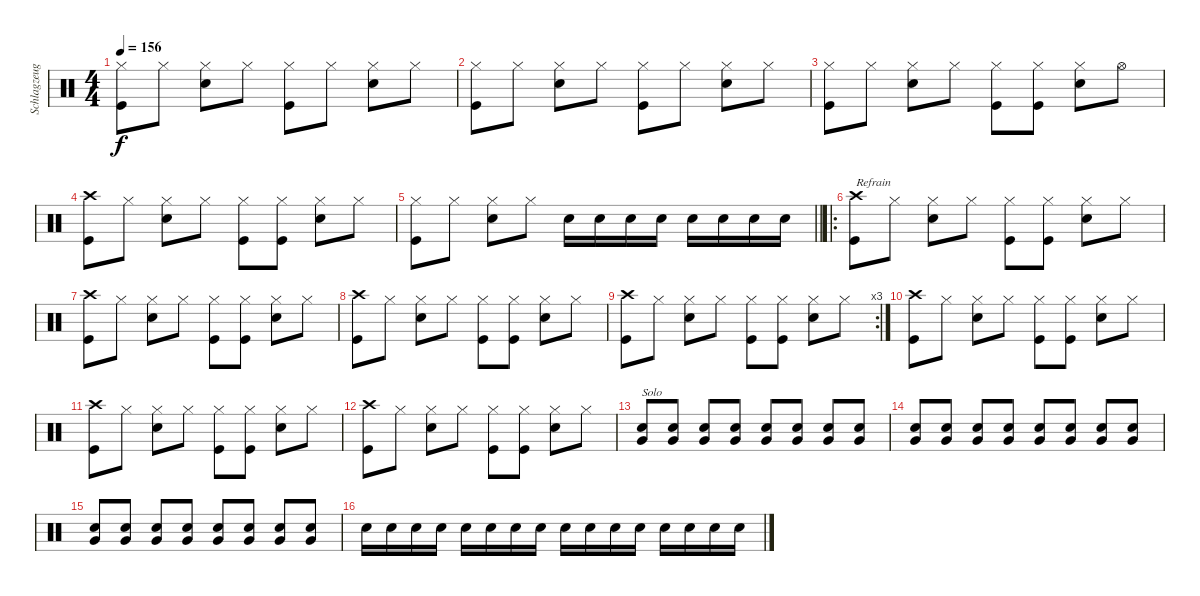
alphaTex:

\track ("Schlagzeug" "Schlagzeug") {instrument percussion}
\staff {score}
\articulation defaults
\ts (4 4)
\tempo 156
\clef neutral
\ks c
("Hi-Hat (closed)" "Kick (hit)").8{dy f} "Hi-Hat (closed)".8 ("Hi-Hat (closed)" "Electric Snare (hit)").8 "Hi-Hat (closed)".8 ("Hi-Hat (closed)" "Kick (hit)").8 "Hi-Hat (closed)".8 ("Hi-Hat (closed)" "Electric Snare (hit)").8 "Hi-Hat (closed)".8 |
("Hi-Hat (closed)" "Kick (hit)").8 "Hi-Hat (closed)".8 ("Hi-Hat (closed)" "Electric Snare (hit)").8 "Hi-Hat (closed)".8 ("Hi-Hat (closed)" "Kick (hit)").8 "Hi-Hat (closed)".8 ("Hi-Hat (closed)" "Electric Snare (hit)").8 "Hi-Hat (closed)".8 |
("Hi-Hat (closed)" "Kick (hit)").8 "Hi-Hat (closed)".8 ("Hi-Hat (closed)" "Electric Snare (hit)").8 "Hi-Hat (closed)".8 ("Hi-Hat (closed)" "Kick (hit)").8 ("Hi-Hat (closed)" "Kick (hit)").8 ("Hi-Hat (closed)" "Electric Snare (hit)").8 "Hi-Hat (open)".8 |
("Crash high (hit)" "Kick (hit)").8 "Hi-Hat (closed)".8 ("Hi-Hat (closed)" "Electric Snare (hit)").8 "Hi-Hat (closed)".8 ("Hi-Hat (closed)" "Kick (hit)").8 ("Hi-Hat (closed)" "Kick (hit)").8 ("Hi-Hat (closed)" "Electric Snare (hit)").8 "Hi-Hat (closed)".8 |
\barLineRight lightlight
("Hi-Hat (closed)" "Kick (hit)").8 "Hi-Hat (closed)".8 ("Hi-Hat (closed)" "Electric Snare (hit)").8 "Hi-Hat (closed)".8 "Electric Snare (hit)".16 "Electric Snare (hit)".16 "Electric Snare (hit)".16 "Electric Snare (hit)".16 "Electric Snare (hit)".16 "Electric Snare (hit)".16 "Electric Snare (hit)".16 "Electric Snare (hit)".16 |
\ro
("Crash high (hit)" "Kick (hit)").8{txt "Refrain"} "Hi-Hat (closed)".8 ("Hi-Hat (closed)" "Electric Snare (hit)").8 "Hi-Hat (closed)".8 ("Hi-Hat (closed)" "Kick (hit)").8 ("Hi-Hat (closed)" "Kick (hit)").8 ("Hi-Hat (closed)" "Electric Snare (hit)").8 "Hi-Hat (closed)".8 |
("Crash high (hit)" "Kick (hit)").8 "Hi-Hat (closed)".8 ("Hi-Hat (closed)" "Electric Snare (hit)").8 "Hi-Hat (closed)".8 ("Hi-Hat (closed)" "Kick (hit)").8 ("Hi-Hat (closed)" "Kick (hit)").8 ("Hi-Hat (closed)" "Electric Snare (hit)").8 "Hi-Hat (closed)".8 |
("Crash high (hit)" "Kick (hit)").8 "Hi-Hat (closed)".8 ("Hi-Hat (closed)" "Electric Snare (hit)").8 "Hi-Hat (closed)".8 ("Hi-Hat (closed)" "Kick (hit)").8 ("Hi-Hat (closed)" "Kick (hit)").8 ("Hi-Hat (closed)" "Electric Snare (hit)").8 "Hi-Hat (closed)".8 |
\rc 3
("Crash high (hit)" "Kick (hit)").8 "Hi-Hat (closed)".8 ("Hi-Hat (closed)" "Electric Snare (hit)").8 "Hi-Hat (closed)".8 ("Hi-Hat (closed)" "Kick (hit)").8 ("Hi-Hat (closed)" "Kick (hit)").8 ("Hi-Hat (closed)" "Electric Snare (hit)").8 "Hi-Hat (closed)".8 |
("Crash high (hit)" "Kick (hit)").8 "Hi-Hat (closed)".8 ("Hi-Hat (closed)" "Electric Snare (hit)").8 "Hi-Hat (closed)".8 ("Hi-Hat (closed)" "Kick (hit)").8 ("Hi-Hat (closed)" "Kick (hit)").8 ("Hi-Hat (closed)" "Electric Snare (hit)").8 "Hi-Hat (closed)".8 |
("Crash high (hit)" "Kick (hit)").8 "Hi-Hat (closed)".8 ("Hi-Hat (closed)" "Electric Snare (hit)").8 "Hi-Hat (closed)".8 ("Hi-Hat (closed)" "Kick (hit)").8 ("Hi-Hat (closed)" "Kick (hit)").8 ("Hi-Hat (closed)" "Electric Snare (hit)").8 "Hi-Hat (closed)".8 |
("Crash high (hit)" "Kick (hit)").8 "Hi-Hat (closed)".8 ("Hi-Hat (closed)" "Electric Snare (hit)").8 "Hi-Hat (closed)".8 ("Hi-Hat (closed)" "Kick (hit)").8 ("Hi-Hat (closed)" "Kick (hit)").8 ("Hi-Hat (closed)" "Electric Snare (hit)").8 "Hi-Hat (closed)".8 |
("Electric Snare (hit)" "Very Low Tom (hit)").8{txt "Solo"} ("Electric Snare (hit)" "Very Low Tom (hit)").8 ("Electric Snare (hit)" "Very Low Tom (hit)").8 ("Electric Snare (hit)" "Very Low Tom (hit)").8 ("Electric Snare (hit)" "Very Low Tom (hit)").8 ("Electric Snare (hit)" "Very Low Tom (hit)").8 ("Electric Snare (hit)" "Very Low Tom (hit)").8 ("Electric Snare (hit)" "Very Low Tom (hit)").8 |
("Electric Snare (hit)" "Very Low Tom (hit)").8 ("Electric Snare (hit)" "Very Low Tom (hit)").8 ("Electric Snare (hit)" "Very Low Tom (hit)").8 ("Electric Snare (hit)" "Very Low Tom (hit)").8 ("Electric Snare (hit)" "Very Low Tom (hit)").8 ("Electric Snare (hit)" "Very Low Tom (hit)").8 ("Electric Snare (hit)" "Very Low Tom (hit)").8 ("Electric Snare (hit)" "Very Low Tom (hit)").8 |
("Electric Snare (hit)" "Very Low Tom (hit)").8 ("Electric Snare (hit)" "Very Low Tom (hit)").8 ("Electric Snare (hit)" "Very Low Tom (hit)").8 ("Electric Snare (hit)" "Very Low Tom (hit)").8 ("Electric Snare (hit)" "Very Low Tom (hit)").8 ("Electric Snare (hit)" "Very Low Tom (hit)").8 ("Electric Snare (hit)" "Very Low Tom (hit)").8 ("Electric Snare (hit)" "Very Low Tom (hit)").8 |
"Electric Snare (hit)".16 "Electric Snare (hit)".16 "Electric Snare (hit)".16 "Electric Snare (hit)".16 "Electric Snare (hit)".16 "Electric Snare (hit)".16 "Electric Snare (hit)".16 "Electric Snare (hit)".16 "Electric Snare (hit)".16 "Electric Snare (hit)".16 "Electric Snare (hit)".16 "Electric Snare (hit)".16 "Electric Snare (hit)".16 "Electric Snare (hit)".16 "Electric Snare (hit)".16 "Electric Snare (hit)".16
